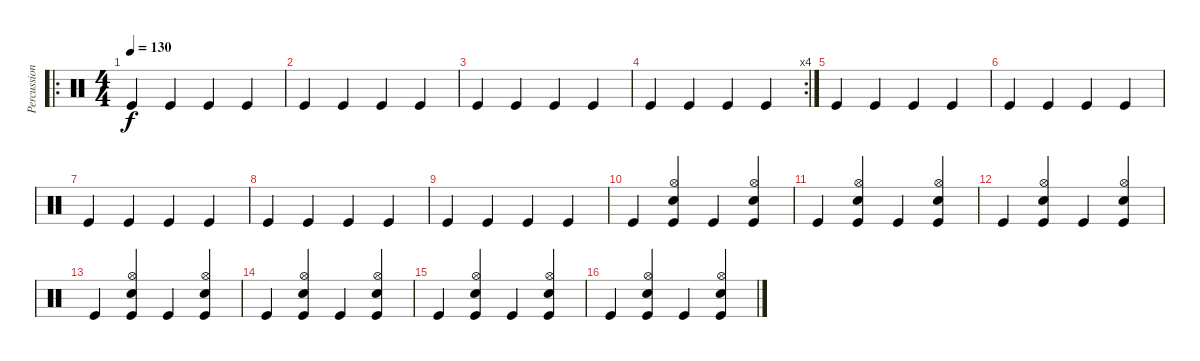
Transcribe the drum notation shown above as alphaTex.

\track ("Percussion" "Percussion") {instrument percussion}
\staff {score}
\articulation defaults
\ro
\ts (4 4)
\tempo 130
\clef neutral
\ks c "Kick (hit)".4{dy f} "Kick (hit)".4 "Kick (hit)".4 "Kick (hit)".4
|
"Kick (hit)".4 "Kick (hit)".4 "Kick (hit)".4 "Kick (hit)".4 |
"Kick (hit)".4 "Kick (hit)".4 "Kick (hit)".4 "Kick (hit)".4 |
\rc 4 "Kick (hit)".4 "Kick (hit)".4 "Kick (hit)".4 "Kick (hit)".4
|
"Kick (hit)".4 "Kick (hit)".4 "Kick (hit)".4 "Kick (hit)".4 |
"Kick (hit)".4 "Kick (hit)".4 "Kick (hit)".4 "Kick (hit)".4 |
"Kick (hit)".4 "Kick (hit)".4 "Kick (hit)".4 "Kick (hit)".4 |
"Kick (hit)".4 "Kick (hit)".4 "Kick (hit)".4 "Kick (hit)".4 |
"Kick (hit)".4 "Kick (hit)".4 "Kick (hit)".4 "Kick (hit)".4 |
"Kick (hit)".4 ("Kick (hit)" "Hi-Hat (open)" "Snare (hit) 2").4 "Kick (hit)".4 ("Kick (hit)" "Hi-Hat (open)" "Snare (hit) 2").4 |
"Kick (hit)".4 ("Kick (hit)" "Hi-Hat (open)" "Snare (hit) 2").4 "Kick (hit)".4 ("Kick (hit)" "Hi-Hat (open)" "Snare (hit) 2").4 |
"Kick (hit)".4 ("Kick (hit)" "Hi-Hat (open)" "Snare (hit) 2").4 "Kick (hit)".4 ("Kick (hit)" "Hi-Hat (open)" "Snare (hit) 2").4 |
"Kick (hit)".4 ("Kick (hit)" "Hi-Hat (open)" "Snare (hit) 2").4 "Kick (hit)".4 ("Kick (hit)" "Hi-Hat (open)" "Snare (hit) 2").4 |
"Kick (hit)".4 ("Kick (hit)" "Hi-Hat (open)" "Snare (hit) 2").4 "Kick (hit)".4 ("Kick (hit)" "Hi-Hat (open)" "Snare (hit) 2").4 |
"Kick (hit)".4 ("Kick (hit)" "Hi-Hat (open)" "Snare (hit) 2").4 "Kick (hit)".4 ("Kick (hit)" "Hi-Hat (open)" "Snare (hit) 2").4 |
"Kick (hit)".4 ("Kick (hit)" "Hi-Hat (open)" "Snare (hit) 2").4 "Kick (hit)".4 ("Kick (hit)" "Hi-Hat (open)" "Snare (hit) 2").4
